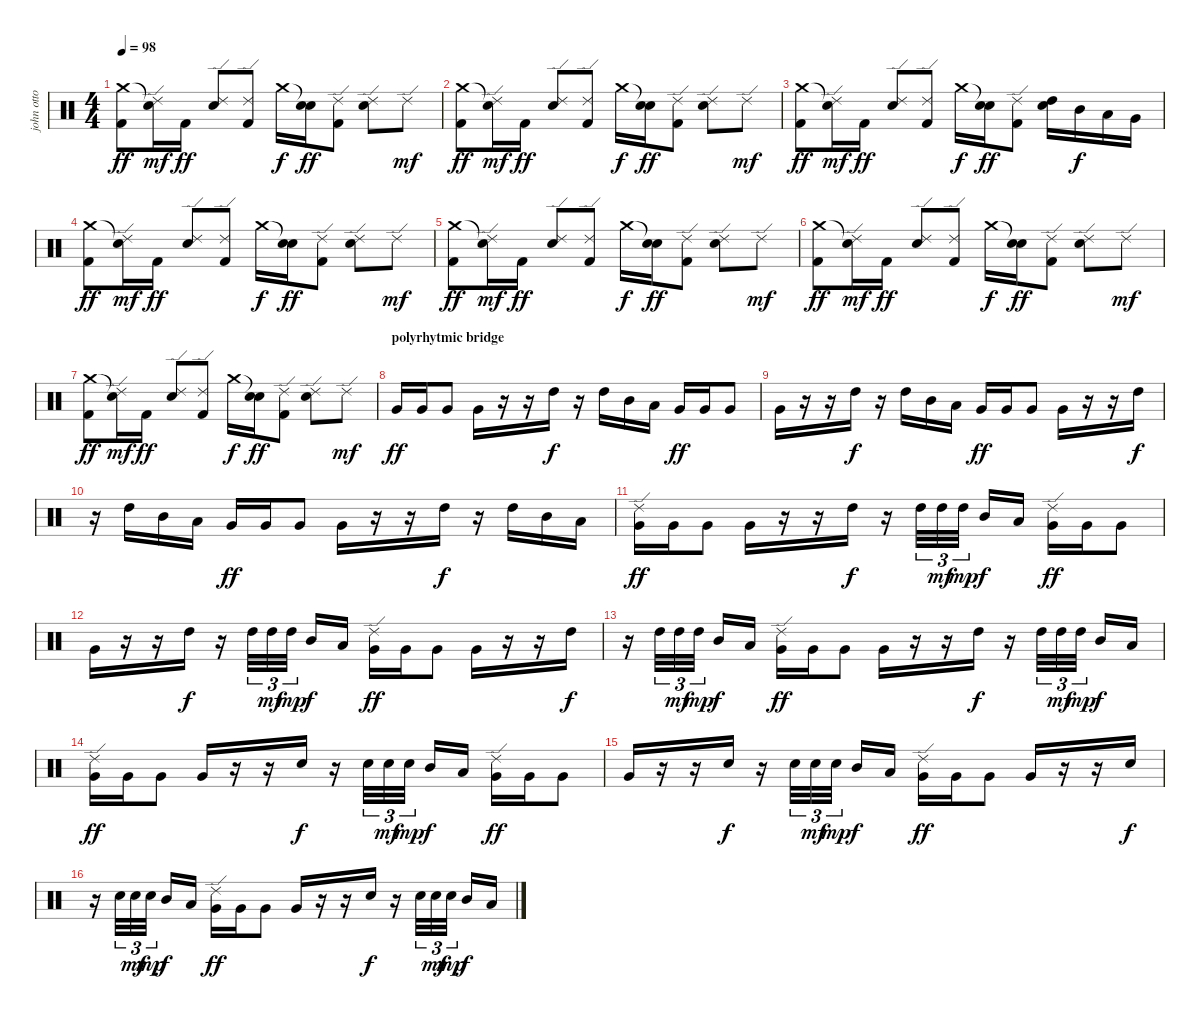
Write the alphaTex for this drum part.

\track ("john otto" "john otto") {instrument percussion}
\staff {score}
\articulation defaults
\ts (4 4)
\tempo 98
\clef neutral
\ks c
("Crash medium (hit)" "Kick (hit) 2").8{dy ff} ("Snare (hit)"{t} "Ride (edge) 2").16{dy mf} "Kick (hit) 2".16{dy ff} ("Ride (edge) 2" "Snare (hit) 2").8 ("Ride (edge) 2" "Kick (hit) 2").8 "Crash medium (hit)".16{dy f} ("Snare (hit)"{t} "Snare (hit) 2").16{dy ff} ("Ride (edge) 2" "Kick (hit) 2").8 ("Ride (edge) 2" "Snare (hit) 2").8 "Ride (edge) 2".8{dy mf} |
("Crash medium (hit)" "Kick (hit) 2").8{dy ff} ("Snare (hit)"{t} "Ride (edge) 2").16{dy mf} "Kick (hit) 2".16{dy ff} ("Ride (edge) 2" "Snare (hit) 2").8 ("Ride (edge) 2" "Kick (hit) 2").8 "Crash medium (hit)".16{dy f} ("Snare (hit)"{t} "Snare (hit) 2").16{dy ff} ("Ride (edge) 2" "Kick (hit) 2").8 ("Ride (edge) 2" "Snare (hit) 2").8 "Ride (edge) 2".8{dy mf} |
("Crash medium (hit)" "Kick (hit) 2").8{dy ff} ("Snare (hit)"{t} "Ride (edge) 2").16{dy mf} "Kick (hit) 2".16{dy ff} ("Ride (edge) 2" "Snare (hit) 2").8 ("Ride (edge) 2" "Kick (hit) 2").8 "Crash medium (hit)".16{dy f} ("Snare (hit)"{t} "Snare (hit) 2").16{dy ff} ("Ride (edge) 2" "Kick (hit) 2").8 ("High Tom (hit)" "Snare (hit) 2").16 "Mid Tom (hit)".16{dy f} "Low Tom (hit)".16 "Very Low Tom (hit)".16 |
("Crash medium (hit)" "Kick (hit) 2").8{dy ff} ("Snare (hit)"{t} "Ride (edge) 2").16{dy mf} "Kick (hit) 2".16{dy ff} ("Ride (edge) 2" "Snare (hit) 2").8 ("Ride (edge) 2" "Kick (hit) 2").8 "Crash medium (hit)".16{dy f} ("Snare (hit)"{t} "Snare (hit) 2").16{dy ff} ("Ride (edge) 2" "Kick (hit) 2").8 ("Ride (edge) 2" "Snare (hit) 2").8 "Ride (edge) 2".8{dy mf} |
("Crash medium (hit)" "Kick (hit) 2").8{dy ff} ("Snare (hit)"{t} "Ride (edge) 2").16{dy mf} "Kick (hit) 2".16{dy ff} ("Ride (edge) 2" "Snare (hit) 2").8 ("Ride (edge) 2" "Kick (hit) 2").8 "Crash medium (hit)".16{dy f} ("Snare (hit)"{t} "Snare (hit) 2").16{dy ff} ("Ride (edge) 2" "Kick (hit) 2").8 ("Ride (edge) 2" "Snare (hit) 2").8 "Ride (edge) 2".8{dy mf} |
("Crash medium (hit)" "Kick (hit) 2").8{dy ff} ("Snare (hit)"{t} "Ride (edge) 2").16{dy mf} "Kick (hit) 2".16{dy ff} ("Ride (edge) 2" "Snare (hit) 2").8 ("Ride (edge) 2" "Kick (hit) 2").8 "Crash medium (hit)".16{dy f} ("Snare (hit)"{t} "Snare (hit) 2").16{dy ff} ("Ride (edge) 2" "Kick (hit) 2").8 ("Ride (edge) 2" "Snare (hit) 2").8 "Ride (edge) 2".8{dy mf} |
("Crash medium (hit)" "Kick (hit) 2").8{dy ff} ("Snare (hit)"{t} "Ride (edge) 2").16{dy mf} "Kick (hit) 2".16{dy ff} ("Ride (edge) 2" "Snare (hit) 2").8 ("Ride (edge) 2" "Kick (hit) 2").8 "Crash medium (hit)".16{dy f} ("Snare (hit)"{t} "Snare (hit) 2").16{dy ff} ("Ride (edge) 2" "Kick (hit) 2").8 ("Ride (edge) 2" "Snare (hit) 2").8 "Ride (edge) 2".8{dy mf} |
\section ("" "polyrhytmic bridge")
"Very Low Tom (hit)".16{dy ff volume 10} "Very Low Tom (hit)".16 "Very Low Tom (hit)".8 "Very Low Tom (hit)".16 r.16 r.16 "High Tom (hit)".16{dy f} r.16 "High Tom (hit)".16 "Mid Tom (hit)".16 "Low Tom (hit)".16 "Very Low Tom (hit)".16{dy ff} "Very Low Tom (hit)".16 "Very Low Tom (hit)".8 |
"Very Low Tom (hit)".16 r.16 r.16 "High Tom (hit)".16{dy f} r.16 "High Tom (hit)".16 "Mid Tom (hit)".16 "Low Tom (hit)".16 "Very Low Tom (hit)".16{dy ff} "Very Low Tom (hit)".16 "Very Low Tom (hit)".8 "Very Low Tom (hit)".16 r.16 r.16 "High Tom (hit)".16{dy f} |
r.16 "High Tom (hit)".16 "Mid Tom (hit)".16 "Low Tom (hit)".16 "Very Low Tom (hit)".16{dy ff} "Very Low Tom (hit)".16 "Very Low Tom (hit)".8 "Very Low Tom (hit)".16 r.16 r.16 "High Tom (hit)".16{dy f} r.16 "High Tom (hit)".16 "Mid Tom (hit)".16 "Low Tom (hit)".16 |
("Ride (edge) 2" "Very Low Tom (hit)").16{dy ff volume 12} "Very Low Tom (hit)".16 "Very Low Tom (hit)".8 "Very Low Tom (hit)".16 r.16 r.16 "High Tom (hit)".16{dy f} r.16 "High Tom (hit)".32{tu (3 2)} "High Tom (hit)".32{tu (3 2) dy mf} "High Tom (hit)".32{tu (3 2) dy mp} "Mid Tom (hit)".16{dy f} "Low Tom (hit)".16 ("Ride (edge) 2" "Very Low Tom (hit)").16{dy ff} "Very Low Tom (hit)".16 "Very Low Tom (hit)".8 |
"Very Low Tom (hit)".16 r.16 r.16 "High Tom (hit)".16{dy f} r.16 "High Tom (hit)".32{tu (3 2)} "High Tom (hit)".32{tu (3 2) dy mf} "High Tom (hit)".32{tu (3 2) dy mp} "Mid Tom (hit)".16{dy f} "Low Tom (hit)".16 ("Ride (edge) 2" "Very Low Tom (hit)").16{dy ff} "Very Low Tom (hit)".16 "Very Low Tom (hit)".8 "Very Low Tom (hit)".16 r.16 r.16 "High Tom (hit)".16{dy f} |
r.16 "High Tom (hit)".32{tu (3 2)} "High Tom (hit)".32{tu (3 2) dy mf} "High Tom (hit)".32{tu (3 2) dy mp} "Mid Tom (hit)".16{dy f} "Low Tom (hit)".16 ("Ride (edge) 2" "Very Low Tom (hit)").16{dy ff} "Very Low Tom (hit)".16 "Very Low Tom (hit)".8 "Very Low Tom (hit)".16 r.16 r.16 "High Tom (hit)".16{dy f} r.16 "High Tom (hit)".32{tu (3 2)} "High Tom (hit)".32{tu (3 2) dy mf} "High Tom (hit)".32{tu (3 2) dy mp} "Mid Tom (hit)".16{dy f} "Low Tom (hit)".16 |
("Ride (edge) 2" "Very Low Tom (hit)").16{dy ff volume 13} "Very Low Tom (hit)".16 "Very Low Tom (hit)".8 "Very Low Tom (hit)".16 r.16 r.16 "Snare (hit) 2".16{dy f} r.16 "Snare (hit) 2".32{tu (3 2)} "Snare (hit) 2".32{tu (3 2) dy mf} "Snare (hit) 2".32{tu (3 2) dy mp} "Mid Tom (hit)".16{dy f} "Low Tom (hit)".16 ("Ride (edge) 2" "Very Low Tom (hit)").16{dy ff} "Very Low Tom (hit)".16 "Very Low Tom (hit)".8 |
"Very Low Tom (hit)".16 r.16 r.16 "Snare (hit) 2".16{dy f} r.16 "Snare (hit) 2".32{tu (3 2)} "Snare (hit) 2".32{tu (3 2) dy mf} "Snare (hit) 2".32{tu (3 2) dy mp} "Mid Tom (hit)".16{dy f} "Low Tom (hit)".16 ("Ride (edge) 2" "Very Low Tom (hit)").16{dy ff} "Very Low Tom (hit)".16 "Very Low Tom (hit)".8 "Very Low Tom (hit)".16 r.16 r.16 "Snare (hit) 2".16{dy f} |
r.16 "Snare (hit) 2".32{tu (3 2)} "Snare (hit) 2".32{tu (3 2) dy mf} "Snare (hit) 2".32{tu (3 2) dy mp} "Mid Tom (hit)".16{dy f} "Low Tom (hit)".16 ("Ride (edge) 2" "Very Low Tom (hit)").16{dy ff} "Very Low Tom (hit)".16 "Very Low Tom (hit)".8 "Very Low Tom (hit)".16 r.16 r.16 "Snare (hit) 2".16{dy f} r.16 "Snare (hit) 2".32{tu (3 2)} "Snare (hit) 2".32{tu (3 2) dy mf} "Snare (hit) 2".32{tu (3 2) dy mp} "Mid Tom (hit)".16{dy f} "Low Tom (hit)".16
